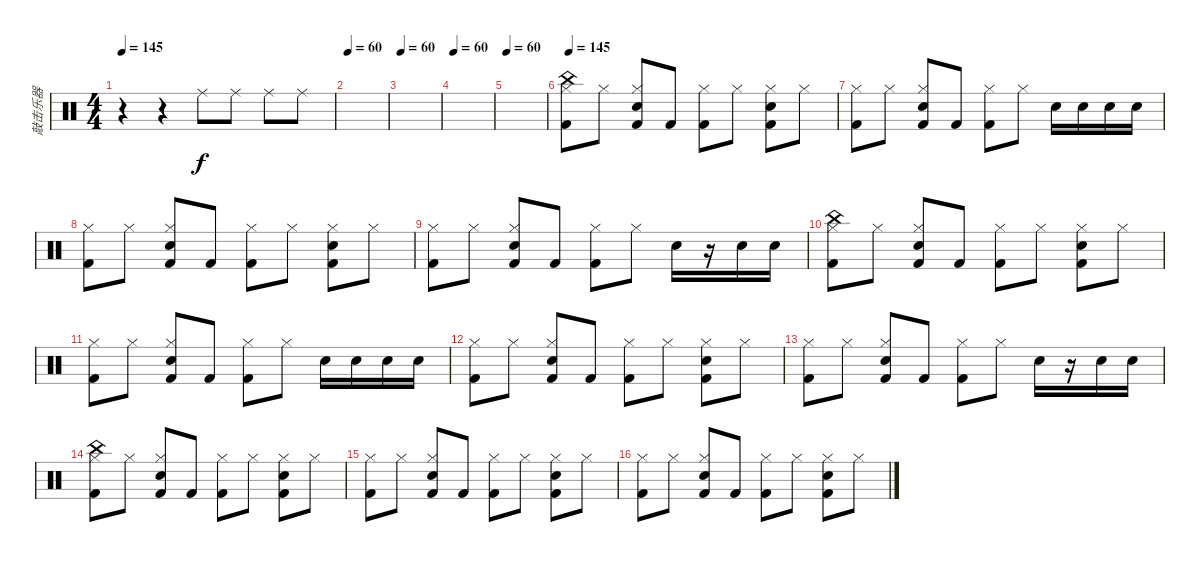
\track ("敲击乐器" "敲击乐器") {instrument percussion}
\staff {score}
\articulation defaults
\ts (4 4)
\tempo 145
\tempo 60
\tempo 145
\clef neutral
\ks c
r.4{dy f} r.4 "Ride (middle)".8 "Ride (middle)".8 "Ride (middle)".8 "Ride (middle)".8 |
\tempo 60
|
\tempo 60
|
\tempo 60
|
\tempo 60
|
\tempo 145
("Kick (hit) 2" "Hi-Hat (closed)" "China (hit)").8 "Hi-Hat (closed)".8 ("Electric Snare (hit)" "Kick (hit) 2" "Hi-Hat (closed)").8 "Kick (hit) 2".8 ("Kick (hit) 2" "Hi-Hat (closed)").8 "Hi-Hat (closed)".8 ("Electric Snare (hit)" "Kick (hit) 2" "Hi-Hat (closed)").8 "Hi-Hat (closed)".8 |
("Kick (hit) 2" "Hi-Hat (closed)").8 "Hi-Hat (closed)".8 ("Electric Snare (hit)" "Kick (hit) 2" "Hi-Hat (closed)").8 "Kick (hit) 2".8 ("Kick (hit) 2" "Hi-Hat (closed)").8 "Hi-Hat (closed)".8 "Electric Snare (hit)".16 "Electric Snare (hit)".16 "Electric Snare (hit)".16 "Electric Snare (hit)".16 |
("Kick (hit) 2" "Hi-Hat (closed)").8 "Hi-Hat (closed)".8 ("Electric Snare (hit)" "Kick (hit) 2" "Hi-Hat (closed)").8 "Kick (hit) 2".8 ("Kick (hit) 2" "Hi-Hat (closed)").8 "Hi-Hat (closed)".8 ("Electric Snare (hit)" "Kick (hit) 2" "Hi-Hat (closed)").8 "Hi-Hat (closed)".8 |
("Kick (hit) 2" "Hi-Hat (closed)").8 "Hi-Hat (closed)".8 ("Electric Snare (hit)" "Kick (hit) 2" "Hi-Hat (closed)").8 "Kick (hit) 2".8 ("Kick (hit) 2" "Hi-Hat (closed)").8 "Hi-Hat (closed)".8 "Electric Snare (hit)".16 r.16 "Electric Snare (hit)".16 "Electric Snare (hit)".16 |
("Kick (hit) 2" "Hi-Hat (closed)" "China (hit)").8 "Hi-Hat (closed)".8 ("Electric Snare (hit)" "Kick (hit) 2" "Hi-Hat (closed)").8 "Kick (hit) 2".8 ("Kick (hit) 2" "Hi-Hat (closed)").8 "Hi-Hat (closed)".8 ("Electric Snare (hit)" "Kick (hit) 2" "Hi-Hat (closed)").8 "Hi-Hat (closed)".8 |
("Kick (hit) 2" "Hi-Hat (closed)").8 "Hi-Hat (closed)".8 ("Electric Snare (hit)" "Kick (hit) 2" "Hi-Hat (closed)").8 "Kick (hit) 2".8 ("Kick (hit) 2" "Hi-Hat (closed)").8 "Hi-Hat (closed)".8 "Electric Snare (hit)".16 "Electric Snare (hit)".16 "Electric Snare (hit)".16 "Electric Snare (hit)".16 |
("Kick (hit) 2" "Hi-Hat (closed)").8 "Hi-Hat (closed)".8 ("Electric Snare (hit)" "Kick (hit) 2" "Hi-Hat (closed)").8 "Kick (hit) 2".8 ("Kick (hit) 2" "Hi-Hat (closed)").8 "Hi-Hat (closed)".8 ("Electric Snare (hit)" "Kick (hit) 2" "Hi-Hat (closed)").8 "Hi-Hat (closed)".8 |
("Kick (hit) 2" "Hi-Hat (closed)").8 "Hi-Hat (closed)".8 ("Electric Snare (hit)" "Kick (hit) 2" "Hi-Hat (closed)").8 "Kick (hit) 2".8 ("Kick (hit) 2" "Hi-Hat (closed)").8 "Hi-Hat (closed)".8 "Electric Snare (hit)".16 r.16 "Electric Snare (hit)".16 "Electric Snare (hit)".16 |
("Kick (hit) 2" "Hi-Hat (closed)" "China (hit)").8 "Hi-Hat (closed)".8 ("Electric Snare (hit)" "Kick (hit) 2" "Hi-Hat (closed)").8 "Kick (hit) 2".8 ("Kick (hit) 2" "Hi-Hat (closed)").8 "Hi-Hat (closed)".8 ("Electric Snare (hit)" "Kick (hit) 2" "Hi-Hat (closed)").8 "Hi-Hat (closed)".8 |
("Kick (hit) 2" "Hi-Hat (closed)").8 "Hi-Hat (closed)".8 ("Electric Snare (hit)" "Kick (hit) 2" "Hi-Hat (closed)").8 "Kick (hit) 2".8 ("Kick (hit) 2" "Hi-Hat (closed)").8 "Hi-Hat (closed)".8 ("Electric Snare (hit)" "Kick (hit) 2" "Hi-Hat (closed)").8 "Hi-Hat (closed)".8 |
("Kick (hit) 2" "Hi-Hat (closed)").8 "Hi-Hat (closed)".8 ("Electric Snare (hit)" "Kick (hit) 2" "Hi-Hat (closed)").8 "Kick (hit) 2".8 ("Kick (hit) 2" "Hi-Hat (closed)").8 "Hi-Hat (closed)".8 ("Electric Snare (hit)" "Kick (hit) 2" "Hi-Hat (closed)").8 "Hi-Hat (closed)".8
